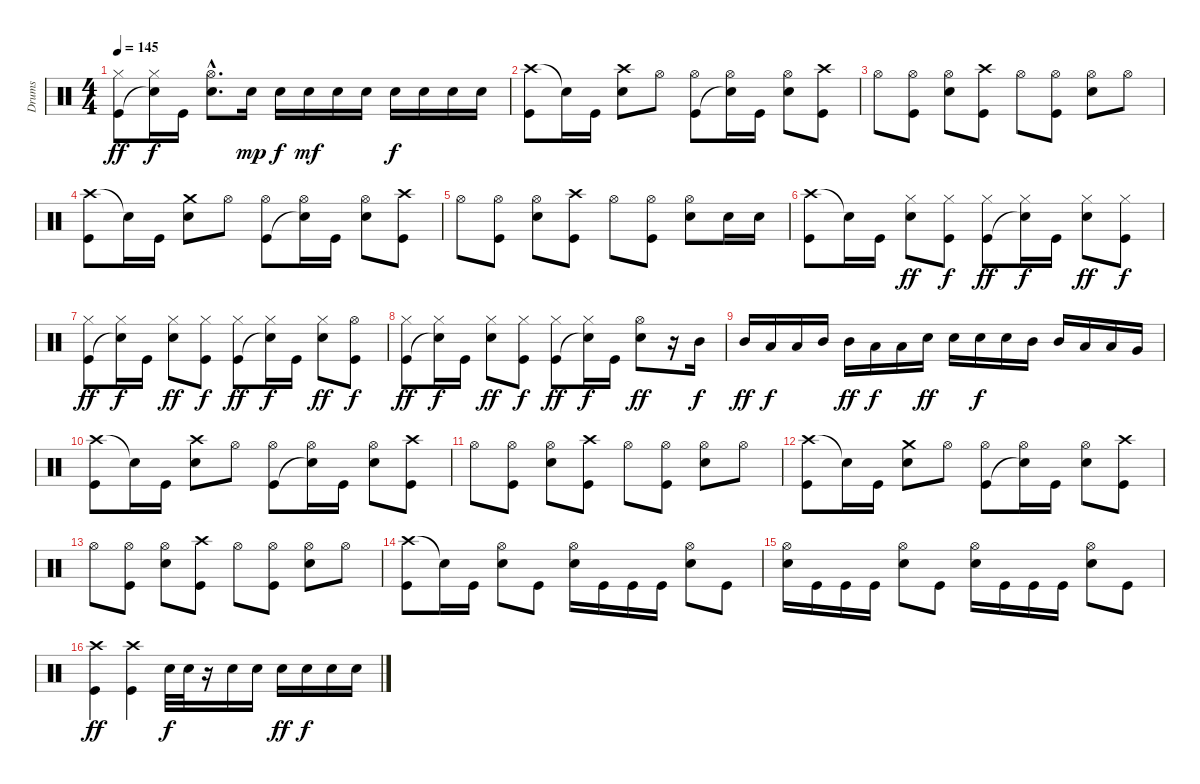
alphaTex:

\track ("Drums" "Drums") {instrument percussion}
\staff {score}
\articulation defaults
\ts (4 4)
\tempo 145
\clef neutral
\ks c
("Hi-Hat (closed)" "Kick (hit)").8{dy ff} ("Hi-Hat (closed)" "Snare (hit) 2"{t}).16{dy f} "Kick (hit)".16 ("Hi-Hat (open)"{hac} "Snare (hit) 2"{hac}).8{d} "Snare (hit) 2".16{dy mp} "Snare (hit) 2".16{dy f} "Snare (hit) 2".16{dy mf} "Snare (hit) 2".16 "Snare (hit) 2".16 "Snare (hit) 2".16{dy f} "Snare (hit) 2".16 "Snare (hit) 2".16 "Snare (hit) 2".16 |
("Crash high (hit)" "Kick (hit)").8 "Snare (hit) 2"{t}.16 "Kick (hit)".16 ("Crash high (hit)" "Snare (hit) 2").8 "Hi-Hat (open)".8 ("Hi-Hat (open)" "Kick (hit)").8 ("Hi-Hat (open)" "Snare (hit)"{t}).16 "Kick (hit)".16 ("Hi-Hat (open)" "Snare (hit) 2").8 ("Crash high (hit)" "Kick (hit)").8 |
"Hi-Hat (open)".8 ("Hi-Hat (open)" "Kick (hit)").8 ("Hi-Hat (open)" "Snare (hit) 2").8 ("Crash high (hit)" "Kick (hit)").8 "Hi-Hat (open)".8 ("Hi-Hat (open)" "Kick (hit)").8 ("Hi-Hat (open)" "Snare (hit) 2").8 "Hi-Hat (open)".8 |
("Crash high (hit)" "Kick (hit)").8 "Snare (hit) 2"{t}.16 "Kick (hit)".16 ("Crash medium (hit)" "Snare (hit) 2").8 "Hi-Hat (open)".8 ("Hi-Hat (open)" "Kick (hit)").8 ("Hi-Hat (open)" "Snare (hit)"{t}).16 "Kick (hit)".16 ("Hi-Hat (open)" "Snare (hit) 2").8 ("Crash high (hit)" "Kick (hit)").8 |
"Hi-Hat (open)".8 ("Hi-Hat (open)" "Kick (hit)").8 ("Hi-Hat (open)" "Snare (hit) 2").8 ("Crash high (hit)" "Kick (hit)").8 "Hi-Hat (open)".8 ("Hi-Hat (open)" "Kick (hit)").8 ("Hi-Hat (open)" "Snare (hit) 2").8 "Snare (hit) 2".16 "Snare (hit) 2".16 |
("Crash high (hit)" "Kick (hit)").8 "Snare (hit) 2"{t}.16 "Kick (hit)".16 ("Hi-Hat (closed)" "Snare (hit) 2").8{dy ff} ("Hi-Hat (closed)" "Kick (hit)").8{dy f} ("Hi-Hat (closed)" "Kick (hit)").8{dy ff} ("Hi-Hat (closed)" "Snare (hit)"{t}).16{dy f} "Kick (hit)".16 ("Hi-Hat (closed)" "Snare (hit) 2").8{dy ff} ("Hi-Hat (closed)" "Kick (hit)").8{dy f} |
("Hi-Hat (closed)" "Kick (hit)").8{dy ff} ("Hi-Hat (closed)" "Snare (hit) 2"{t}).16{dy f} "Kick (hit)".16 ("Hi-Hat (closed)" "Snare (hit) 2").8{dy ff} ("Hi-Hat (closed)" "Kick (hit)").8{dy f} ("Hi-Hat (closed)" "Kick (hit)").8{dy ff} ("Hi-Hat (closed)" "Snare (hit)"{t}).16{dy f} "Kick (hit)".16 ("Hi-Hat (closed)" "Snare (hit) 2").8{dy ff} ("Hi-Hat (open)" "Kick (hit)").8{dy f} |
("Hi-Hat (closed)" "Kick (hit)").8{dy ff} ("Hi-Hat (closed)" "Snare (hit) 2"{t}).16{dy f} "Kick (hit)".16 ("Hi-Hat (closed)" "Snare (hit) 2").8{dy ff} ("Hi-Hat (closed)" "Kick (hit)").8{dy f} ("Hi-Hat (closed)" "Kick (hit)").8{dy ff} ("Hi-Hat (closed)" "Snare (hit)"{t}).16{dy f} "Kick (hit)".16 ("Hi-Hat (open)" "Snare (hit) 2").8{dy ff} r.16 "Mid Tom (hit)".16{dy f} |
"Mid Tom (hit)".16{dy ff} "Low Tom (hit)".16{dy f} "Low Tom (hit)".16 "Mid Tom (hit)".16 "Mid Tom (hit)".16{dy ff} "Low Tom (hit)".16{dy f} "Low Tom (hit)".16 "Snare (hit) 2".16{dy ff} "Snare (hit) 2".16 "Snare (hit) 2".16{dy f} "Snare (hit) 2".16 "Mid Tom (hit)".16 "Mid Tom (hit)".16 "Low Tom (hit)".16 "Low Tom (hit)".16 "Very Low Tom (hit)".16 |
("Crash high (hit)" "Kick (hit)").8 "Snare (hit) 2"{t}.16 "Kick (hit)".16 ("Crash high (hit)" "Snare (hit) 2").8 "Hi-Hat (open)".8 ("Hi-Hat (open)" "Kick (hit)").8 ("Hi-Hat (open)" "Snare (hit)"{t}).16 "Kick (hit)".16 ("Hi-Hat (open)" "Snare (hit) 2").8 ("Crash high (hit)" "Kick (hit)").8 |
"Hi-Hat (open)".8 ("Hi-Hat (open)" "Kick (hit)").8 ("Hi-Hat (open)" "Snare (hit) 2").8 ("Crash high (hit)" "Kick (hit)").8 "Hi-Hat (open)".8 ("Hi-Hat (open)" "Kick (hit)").8 ("Hi-Hat (open)" "Snare (hit) 2").8 "Hi-Hat (open)".8 |
("Crash high (hit)" "Kick (hit)").8 "Snare (hit) 2"{t}.16 "Kick (hit)".16 ("Crash medium (hit)" "Snare (hit) 2").8 "Hi-Hat (open)".8 ("Hi-Hat (open)" "Kick (hit)").8 ("Hi-Hat (open)" "Snare (hit)"{t}).16 "Kick (hit)".16 ("Hi-Hat (open)" "Snare (hit) 2").8 ("Crash high (hit)" "Kick (hit)").8 |
"Hi-Hat (open)".8 ("Hi-Hat (open)" "Kick (hit)").8 ("Hi-Hat (open)" "Snare (hit) 2").8 ("Crash high (hit)" "Kick (hit)").8 "Hi-Hat (open)".8 ("Hi-Hat (open)" "Kick (hit)").8 ("Hi-Hat (open)" "Snare (hit) 2").8 "Hi-Hat (open)".8 |
("Crash high (hit)" "Kick (hit)").8 "Snare (hit)"{t}.16 "Kick (hit)".16 ("Hi-Hat (open)" "Snare (hit) 2").8 "Kick (hit)".8 ("Hi-Hat (open)" "Snare (hit) 2").16 "Kick (hit)".16 "Kick (hit)".16 "Kick (hit)".16 ("Hi-Hat (open)" "Snare (hit) 2").8 "Kick (hit)".8 |
("Hi-Hat (open)" "Snare (hit) 2").16 "Kick (hit)".16 "Kick (hit)".16 "Kick (hit)".16 ("Hi-Hat (open)" "Snare (hit) 2").8 "Kick (hit)".8 ("Hi-Hat (open)" "Snare (hit) 2").16 "Kick (hit)".16 "Kick (hit)".16 "Kick (hit)".16 ("Hi-Hat (open)" "Snare (hit) 2").8 "Kick (hit)".8 |
("Crash high (hit)" "Kick (hit)").4{dy ff} ("Crash high (hit)" "Kick (hit)").4 "Snare (hit) 2".32{dy f} "Snare (hit) 2".32 r.16 "Snare (hit) 2".16 "Snare (hit) 2".16 "Snare (hit) 2".16{dy ff} "Snare (hit) 2".16{dy f} "Snare (hit) 2".16 "Snare (hit) 2".16
